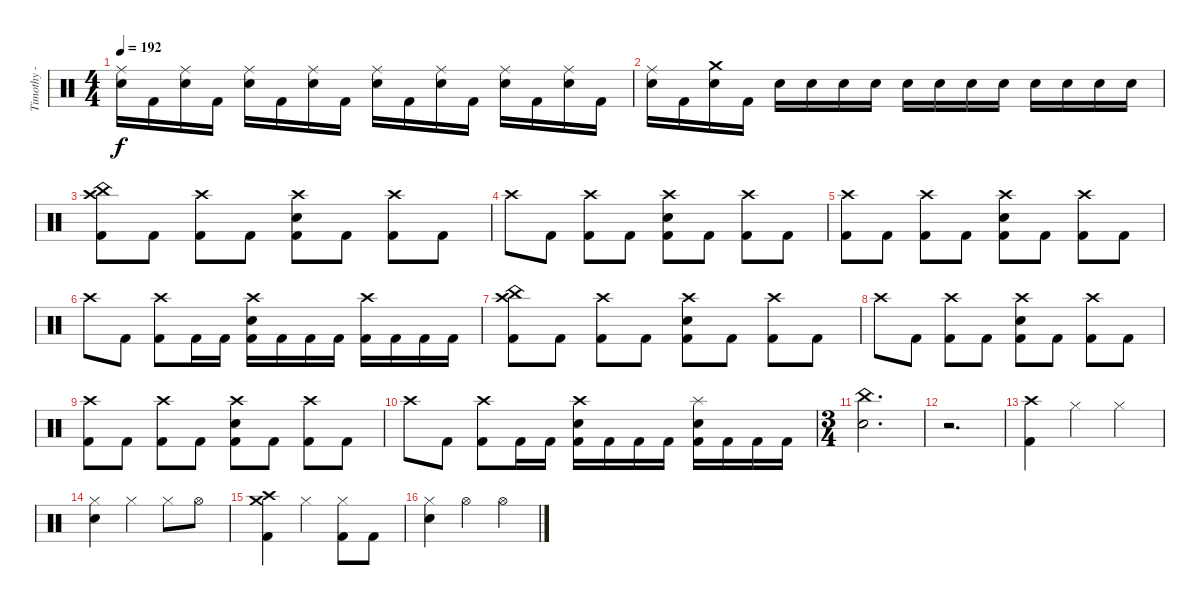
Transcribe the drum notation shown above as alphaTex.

\track ("Timothy - Drums" "Timothy - ") {instrument percussion}
\staff {score}
\articulation defaults
\ts (4 4)
\tempo 192
\clef neutral
\ks c
("Ride (middle)" "Electric Snare (hit)").16{dy f} "Kick (hit) 2".16 ("Ride (middle)" "Electric Snare (hit)").16 "Kick (hit) 2".16 ("Ride (middle)" "Electric Snare (hit)").16 "Kick (hit) 2".16 ("Ride (middle)" "Electric Snare (hit)").16 "Kick (hit) 2".16 ("Ride (middle)" "Electric Snare (hit)").16 "Kick (hit) 2".16 ("Ride (middle)" "Electric Snare (hit)").16 "Kick (hit) 2".16 ("Ride (middle)" "Electric Snare (hit)").16 "Kick (hit) 2".16 ("Ride (middle)" "Electric Snare (hit)").16 "Kick (hit) 2".16 |
("Ride (middle)" "Electric Snare (hit)").16 "Kick (hit) 2".16 ("Crash medium (hit)" "Electric Snare (hit)").16 "Kick (hit) 2".16 "Electric Snare (hit)".16 "Electric Snare (hit)".16 "Electric Snare (hit)".16 "Electric Snare (hit)".16 "Electric Snare (hit)".16 "Electric Snare (hit)".16 "Electric Snare (hit)".16 "Electric Snare (hit)".16 "Electric Snare (hit)".16 "Electric Snare (hit)".16 "Electric Snare (hit)".16 "Electric Snare (hit)".16 |
("China (hit)" "Crash high (hit)" "Kick (hit) 2").8 "Kick (hit) 2".8 ("Crash high (hit)" "Kick (hit) 2").8 "Kick (hit) 2".8 ("Crash high (hit)" "Electric Snare (hit)" "Kick (hit) 2").8 "Kick (hit) 2".8 ("Crash high (hit)" "Kick (hit) 2").8 "Kick (hit) 2".8 |
"Crash high (hit)".8 "Kick (hit) 2".8 ("Crash high (hit)" "Kick (hit) 2").8 "Kick (hit) 2".8 ("Crash high (hit)" "Electric Snare (hit)" "Kick (hit) 2").8 "Kick (hit) 2".8 ("Crash high (hit)" "Kick (hit) 2").8 "Kick (hit) 2".8 |
("Crash high (hit)" "Kick (hit) 2").8 "Kick (hit) 2".8 ("Crash high (hit)" "Kick (hit) 2").8 "Kick (hit) 2".8 ("Crash high (hit)" "Electric Snare (hit)" "Kick (hit) 2").8 "Kick (hit) 2".8 ("Crash high (hit)" "Kick (hit) 2").8 "Kick (hit) 2".8 |
"Crash high (hit)".8 "Kick (hit) 2".8 ("Crash high (hit)" "Kick (hit) 2").8 "Kick (hit) 2".16 "Kick (hit) 2".16 ("Crash high (hit)" "Electric Snare (hit)" "Kick (hit) 2").16 "Kick (hit) 2".16 "Kick (hit) 2".16 "Kick (hit) 2".16 ("Crash high (hit)" "Kick (hit) 2").16 "Kick (hit) 2".16 "Kick (hit) 2".16 "Kick (hit) 2".16 |
("China (hit)" "Crash high (hit)" "Kick (hit) 2").8 "Kick (hit) 2".8 ("Crash high (hit)" "Kick (hit) 2").8 "Kick (hit) 2".8 ("Crash high (hit)" "Electric Snare (hit)" "Kick (hit) 2").8 "Kick (hit) 2".8 ("Crash high (hit)" "Kick (hit) 2").8 "Kick (hit) 2".8 |
"Crash high (hit)".8 "Kick (hit) 2".8 ("Crash high (hit)" "Kick (hit) 2").8 "Kick (hit) 2".8 ("Crash high (hit)" "Electric Snare (hit)" "Kick (hit) 2").8 "Kick (hit) 2".8 ("Crash high (hit)" "Kick (hit) 2").8 "Kick (hit) 2".8 |
("Crash high (hit)" "Kick (hit) 2").8 "Kick (hit) 2".8 ("Crash high (hit)" "Kick (hit) 2").8 "Kick (hit) 2".8 ("Crash high (hit)" "Electric Snare (hit)" "Kick (hit) 2").8 "Kick (hit) 2".8 ("Crash high (hit)" "Kick (hit) 2").8 "Kick (hit) 2".8 |
"Crash high (hit)".8 "Kick (hit) 2".8 ("Crash high (hit)" "Kick (hit) 2").8 "Kick (hit) 2".16 "Kick (hit) 2".16 ("Crash high (hit)" "Electric Snare (hit)" "Kick (hit) 2").16 "Kick (hit) 2".16 "Kick (hit) 2".16 "Kick (hit) 2".16 ("Splash (hit)" "Electric Snare (hit)" "Kick (hit) 2").16 "Kick (hit) 2".16 "Kick (hit) 2".16 "Kick (hit) 2".16 |
\ts (3 4)
("China (hit)" "Electric Snare (hit)").2{d} |
r.2{d} |
("Crash high (hit)" "Kick (hit) 2").4 "Hi-Hat (closed)".4 "Hi-Hat (closed)".4 |
("Hi-Hat (closed)" "Electric Snare (hit)").4 "Hi-Hat (closed)".4 "Hi-Hat (closed)".8 "Hi-Hat (open)".8 |
("Crash high (hit)" "Crash medium (hit)" "Kick (hit) 2").4 "Hi-Hat (closed)".4 ("Hi-Hat (closed)" "Kick (hit) 2").8 "Kick (hit) 2".8 |
("Hi-Hat (closed)" "Electric Snare (hit)").4 "Hi-Hat (open)".4 "Hi-Hat (open)".4
